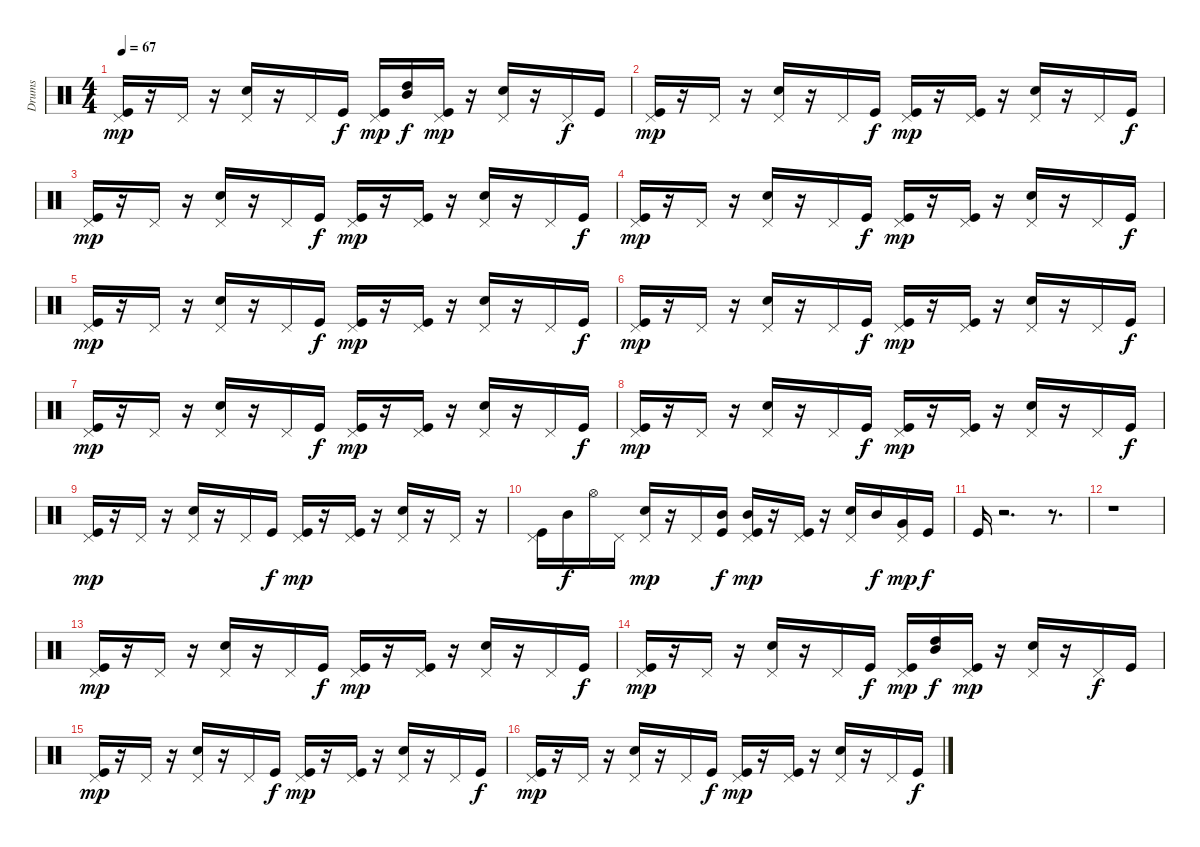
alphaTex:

\track ("Drums" "Drums") {instrument percussion}
\staff {score}
\articulation defaults
\ts (4 4)
\tempo 67
\clef neutral
\ks c
("Kick (hit)" "Pedal Hi-Hat (hit)").16{dy mp} r.16 "Pedal Hi-Hat (hit)".16 r.16 ("Pedal Hi-Hat (hit)" "Snare (hit) 2").16 r.16 "Pedal Hi-Hat (hit)".16 "Kick (hit)".16{dy f} ("Kick (hit)" "Pedal Hi-Hat (hit)").16{dy mp} ("Mid Tom (hit)" "High Tom (hit)").16{dy f} ("Kick (hit)" "Pedal Hi-Hat (hit)").16{dy mp} r.16 ("Pedal Hi-Hat (hit)" "Snare (hit) 2").16 r.16 "Pedal Hi-Hat (hit)".16{dy f} "Kick (hit)".16 |
("Pedal Hi-Hat (hit)" "Kick (hit)").16{dy mp} r.16 "Pedal Hi-Hat (hit)".16 r.16 ("Pedal Hi-Hat (hit)" "Snare (hit) 2").16 r.16 "Pedal Hi-Hat (hit)".16 "Kick (hit)".16{dy f} ("Kick (hit)" "Pedal Hi-Hat (hit)").16{dy mp} r.16 ("Kick (hit)" "Pedal Hi-Hat (hit)").16 r.16 ("Pedal Hi-Hat (hit)" "Snare (hit) 2").16 r.16 "Pedal Hi-Hat (hit)".16 "Kick (hit)".16{dy f} |
("Kick (hit)" "Pedal Hi-Hat (hit)").16{dy mp} r.16 "Pedal Hi-Hat (hit)".16 r.16 ("Pedal Hi-Hat (hit)" "Snare (hit) 2").16 r.16 "Pedal Hi-Hat (hit)".16 "Kick (hit)".16{dy f} ("Kick (hit)" "Pedal Hi-Hat (hit)").16{dy mp} r.16 ("Kick (hit)" "Pedal Hi-Hat (hit)").16 r.16 ("Pedal Hi-Hat (hit)" "Snare (hit) 2").16 r.16 "Pedal Hi-Hat (hit)".16 "Kick (hit)".16{dy f} |
("Kick (hit)" "Pedal Hi-Hat (hit)").16{dy mp} r.16 "Pedal Hi-Hat (hit)".16 r.16 ("Pedal Hi-Hat (hit)" "Snare (hit) 2").16 r.16 "Pedal Hi-Hat (hit)".16 "Kick (hit)".16{dy f} ("Kick (hit)" "Pedal Hi-Hat (hit)").16{dy mp} r.16 ("Kick (hit)" "Pedal Hi-Hat (hit)").16 r.16 ("Pedal Hi-Hat (hit)" "Snare (hit) 2").16 r.16 "Pedal Hi-Hat (hit)".16 "Kick (hit)".16{dy f} |
("Kick (hit)" "Pedal Hi-Hat (hit)").16{dy mp} r.16 "Pedal Hi-Hat (hit)".16 r.16 ("Pedal Hi-Hat (hit)" "Snare (hit) 2").16 r.16 "Pedal Hi-Hat (hit)".16 "Kick (hit)".16{dy f} ("Kick (hit)" "Pedal Hi-Hat (hit)").16{dy mp} r.16 ("Kick (hit)" "Pedal Hi-Hat (hit)").16 r.16 ("Pedal Hi-Hat (hit)" "Snare (hit) 2").16 r.16 "Pedal Hi-Hat (hit)".16 "Kick (hit)".16{dy f} |
("Kick (hit)" "Pedal Hi-Hat (hit)").16{dy mp} r.16 "Pedal Hi-Hat (hit)".16 r.16 ("Pedal Hi-Hat (hit)" "Snare (hit) 2").16 r.16 "Pedal Hi-Hat (hit)".16 "Kick (hit)".16{dy f} ("Kick (hit)" "Pedal Hi-Hat (hit)").16{dy mp} r.16 ("Kick (hit)" "Pedal Hi-Hat (hit)").16 r.16 ("Pedal Hi-Hat (hit)" "Snare (hit) 2").16 r.16 "Pedal Hi-Hat (hit)".16 "Kick (hit)".16{dy f} |
("Kick (hit)" "Pedal Hi-Hat (hit)").16{dy mp} r.16 "Pedal Hi-Hat (hit)".16 r.16 ("Pedal Hi-Hat (hit)" "Snare (hit) 2").16 r.16 "Pedal Hi-Hat (hit)".16 "Kick (hit)".16{dy f} ("Kick (hit)" "Pedal Hi-Hat (hit)").16{dy mp} r.16 ("Kick (hit)" "Pedal Hi-Hat (hit)").16 r.16 ("Pedal Hi-Hat (hit)" "Snare (hit) 2").16 r.16 "Pedal Hi-Hat (hit)".16 "Kick (hit)".16{dy f} |
("Kick (hit)" "Pedal Hi-Hat (hit)").16{dy mp} r.16 "Pedal Hi-Hat (hit)".16 r.16 ("Pedal Hi-Hat (hit)" "Snare (hit) 2").16 r.16 "Pedal Hi-Hat (hit)".16 "Kick (hit)".16{dy f} ("Kick (hit)" "Pedal Hi-Hat (hit)").16{dy mp} r.16 ("Kick (hit)" "Pedal Hi-Hat (hit)").16 r.16 ("Pedal Hi-Hat (hit)" "Snare (hit) 2").16 r.16 "Pedal Hi-Hat (hit)".16 "Kick (hit)".16{dy f} |
("Kick (hit)" "Pedal Hi-Hat (hit)").16{dy mp} r.16 "Pedal Hi-Hat (hit)".16 r.16 ("Pedal Hi-Hat (hit)" "Snare (hit) 2").16 r.16 "Pedal Hi-Hat (hit)".16 "Kick (hit)".16{dy f} ("Kick (hit)" "Pedal Hi-Hat (hit)").16{dy mp} r.16 ("Kick (hit)" "Pedal Hi-Hat (hit)").16 r.16 ("Pedal Hi-Hat (hit)" "Snare (hit) 2").16 r.16 "Pedal Hi-Hat (hit)".16 r.16 |
("Kick (hit)" "Pedal Hi-Hat (hit)").16 "Mid Tom (hit)".16{dy f} "Hi-Hat (open)".16 "Pedal Hi-Hat (hit)".16 ("Pedal Hi-Hat (hit)" "Snare (hit) 2").16{dy mp} r.16 "Pedal Hi-Hat (hit)".16 ("Kick (hit)" "Mid Tom (hit)").16{dy f} ("Kick (hit)" "Pedal Hi-Hat (hit)" "Mid Tom (hit)").16{dy mp} r.16 ("Kick (hit)" "Pedal Hi-Hat (hit)").16 r.16 ("Pedal Hi-Hat (hit)" "Snare (hit) 2").16 "Mid Tom (hit)".16{dy f} ("Pedal Hi-Hat (hit)" "Very Low Tom (hit)").16{dy mp} "Kick (hit)".16{dy f} |
"Kick (hit)".16 r.2{d} r.8{d} |
r.1 |
("Kick (hit)" "Pedal Hi-Hat (hit)").16{dy mp} r.16 "Pedal Hi-Hat (hit)".16 r.16 ("Pedal Hi-Hat (hit)" "Snare (hit) 2").16 r.16 "Pedal Hi-Hat (hit)".16 "Kick (hit)".16{dy f} ("Kick (hit)" "Pedal Hi-Hat (hit)").16{dy mp} r.16 ("Kick (hit)" "Pedal Hi-Hat (hit)").16 r.16 ("Pedal Hi-Hat (hit)" "Snare (hit) 2").16 r.16 "Pedal Hi-Hat (hit)".16 "Kick (hit)".16{dy f} |
("Kick (hit)" "Pedal Hi-Hat (hit)").16{dy mp} r.16 "Pedal Hi-Hat (hit)".16 r.16 ("Pedal Hi-Hat (hit)" "Snare (hit) 2").16 r.16 "Pedal Hi-Hat (hit)".16 "Kick (hit)".16{dy f} ("Kick (hit)" "Pedal Hi-Hat (hit)").16{dy mp} ("Mid Tom (hit)" "High Tom (hit)").16{dy f} ("Kick (hit)" "Pedal Hi-Hat (hit)").16{dy mp} r.16 ("Pedal Hi-Hat (hit)" "Snare (hit) 2").16 r.16 "Pedal Hi-Hat (hit)".16{dy f} "Kick (hit)".16 |
("Pedal Hi-Hat (hit)" "Kick (hit)").16{dy mp} r.16 "Pedal Hi-Hat (hit)".16 r.16 ("Pedal Hi-Hat (hit)" "Snare (hit) 2").16 r.16 "Pedal Hi-Hat (hit)".16 "Kick (hit)".16{dy f} ("Kick (hit)" "Pedal Hi-Hat (hit)").16{dy mp} r.16 ("Kick (hit)" "Pedal Hi-Hat (hit)").16 r.16 ("Pedal Hi-Hat (hit)" "Snare (hit) 2").16 r.16 "Pedal Hi-Hat (hit)".16 "Kick (hit)".16{dy f} |
("Kick (hit)" "Pedal Hi-Hat (hit)").16{dy mp} r.16 "Pedal Hi-Hat (hit)".16 r.16 ("Pedal Hi-Hat (hit)" "Snare (hit) 2").16 r.16 "Pedal Hi-Hat (hit)".16 "Kick (hit)".16{dy f} ("Kick (hit)" "Pedal Hi-Hat (hit)").16{dy mp} r.16 ("Kick (hit)" "Pedal Hi-Hat (hit)").16 r.16 ("Pedal Hi-Hat (hit)" "Snare (hit) 2").16 r.16 "Pedal Hi-Hat (hit)".16 "Kick (hit)".16{dy f}
